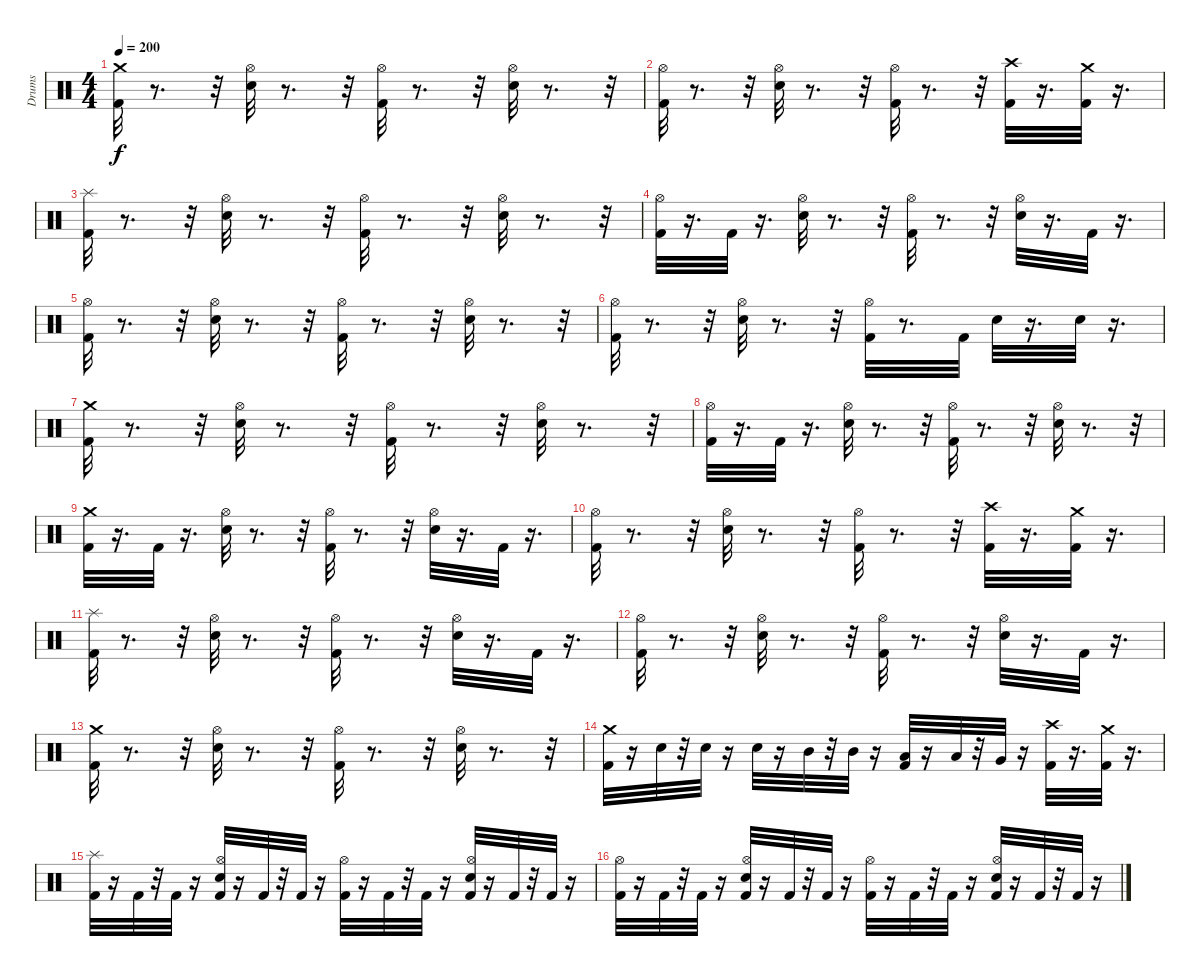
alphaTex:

\track ("Drums" "Drums") {instrument percussion}
\staff {score}
\articulation defaults
\ts (4 4)
\tempo 200
\clef neutral
\ks c
("Crash medium (hit)" "Kick (hit) 2").32{dy f} r.8{d} r.32 ("Hi-Hat (open)" "Electric Snare (hit)").32 r.8{d} r.32 ("Hi-Hat (open)" "Kick (hit) 2").32 r.8{d} r.32 ("Hi-Hat (open)" "Electric Snare (hit)").32 r.8{d} r.32 |
("Hi-Hat (open)" "Kick (hit) 2").32 r.8{d} r.32 ("Hi-Hat (open)" "Electric Snare (hit)").32 r.8{d} r.32 ("Hi-Hat (open)" "Kick (hit) 2").32 r.8{d} r.32 ("Crash high (hit)" "Kick (hit) 2").32 r.16{d} ("Kick (hit) 2" "Crash medium (hit)").32 r.16{d} |
("Splash (hit)" "Kick (hit) 2").32 r.8{d} r.32 ("Hi-Hat (open)" "Electric Snare (hit)").32 r.8{d} r.32 ("Hi-Hat (open)" "Kick (hit) 2").32 r.8{d} r.32 ("Hi-Hat (open)" "Electric Snare (hit)").32 r.8{d} r.32 |
("Hi-Hat (open)" "Kick (hit) 2").32 r.16{d} "Kick (hit) 2".32 r.16{d} ("Hi-Hat (open)" "Electric Snare (hit)").32 r.8{d} r.32 ("Hi-Hat (open)" "Kick (hit) 2").32 r.8{d} r.32 ("Hi-Hat (open)" "Electric Snare (hit)").32 r.16{d} "Kick (hit) 2".32 r.16{d} |
("Hi-Hat (open)" "Kick (hit) 2").32 r.8{d} r.32 ("Hi-Hat (open)" "Electric Snare (hit)").32 r.8{d} r.32 ("Hi-Hat (open)" "Kick (hit) 2").32 r.8{d} r.32 ("Hi-Hat (open)" "Electric Snare (hit)").32 r.8{d} r.32 |
("Hi-Hat (open)" "Kick (hit) 2").32 r.8{d} r.32 ("Hi-Hat (open)" "Electric Snare (hit)").32 r.8{d} r.32 ("Hi-Hat (open)" "Kick (hit) 2").32 r.8{d} "Kick (hit) 2".32 "Electric Snare (hit)".32 r.16{d} "Electric Snare (hit)".32 r.16{d} |
("Crash medium (hit)" "Kick (hit) 2").32 r.8{d} r.32 ("Hi-Hat (open)" "Electric Snare (hit)").32 r.8{d} r.32 ("Hi-Hat (open)" "Kick (hit) 2").32 r.8{d} r.32 ("Hi-Hat (open)" "Electric Snare (hit)").32 r.8{d} r.32 |
("Hi-Hat (open)" "Kick (hit) 2").32 r.16{d} "Kick (hit) 2".32 r.16{d} ("Hi-Hat (open)" "Electric Snare (hit)").32 r.8{d} r.32 ("Hi-Hat (open)" "Kick (hit) 2").32 r.8{d} r.32 ("Hi-Hat (open)" "Electric Snare (hit)").32 r.8{d} r.32 |
("Kick (hit) 2" "Crash medium (hit)").32 r.16{d} "Kick (hit) 2".32 r.16{d} ("Hi-Hat (open)" "Electric Snare (hit)").32 r.8{d} r.32 ("Hi-Hat (open)" "Kick (hit) 2").32 r.8{d} r.32 ("Hi-Hat (open)" "Electric Snare (hit)").32 r.16{d} "Kick (hit) 2".32 r.16{d} |
("Hi-Hat (open)" "Kick (hit) 2").32 r.8{d} r.32 ("Hi-Hat (open)" "Electric Snare (hit)").32 r.8{d} r.32 ("Hi-Hat (open)" "Kick (hit) 2").32 r.8{d} r.32 ("Kick (hit) 2" "Crash high (hit)").32 r.16{d} ("Kick (hit) 2" "Crash medium (hit)").32 r.16{d} |
("Splash (hit)" "Kick (hit) 2").32 r.8{d} r.32 ("Electric Snare (hit)" "Hi-Hat (open)").32 r.8{d} r.32 ("Kick (hit) 2" "Hi-Hat (open)").32 r.8{d} r.32 ("Electric Snare (hit)" "Hi-Hat (open)").32 r.16{d} "Kick (hit) 2".32 r.16{d} |
("Kick (hit) 2" "Hi-Hat (open)").32 r.8{d} r.32 ("Electric Snare (hit)" "Hi-Hat (open)").32 r.8{d} r.32 ("Kick (hit) 2" "Hi-Hat (open)").32 r.8{d} r.32 ("Electric Snare (hit)" "Hi-Hat (open)").32 r.16{d} "Kick (hit) 2".32 r.16{d} |
("Kick (hit) 2" "Crash medium (hit)").32 r.8{d} r.32 ("Electric Snare (hit)" "Hi-Hat (open)").32 r.8{d} r.32 ("Kick (hit) 2" "Hi-Hat (open)").32 r.8{d} r.32 ("Electric Snare (hit)" "Hi-Hat (open)").32 r.8{d} r.32 |
("Crash medium (hit)" "Kick (hit) 2").32 r.16 "Electric Snare (hit)".32 r.32 "Electric Snare (hit)".32 r.16 "Electric Snare (hit)".32 r.16 "Mid Tom (hit)".32 r.32 "Mid Tom (hit)".32 r.16 ("Low Tom (hit)" "Kick (hit) 2").32 r.16 "Low Tom (hit)".32 r.32 "Very Low Tom (hit)".32 r.16 ("Kick (hit) 2" "Crash high (hit)").32 r.16{d} ("Kick (hit) 2" "Crash medium (hit)").32 r.16{d} |
("Kick (hit) 2" "Splash (hit)").32 r.16 "Kick (hit) 2".32 r.32 "Kick (hit) 2".32 r.16 ("Hi-Hat (open)" "Electric Snare (hit)" "Kick (hit) 2").32 r.16 "Kick (hit) 2".32 r.32 "Kick (hit) 2".32 r.16 ("Hi-Hat (open)" "Kick (hit) 2").32 r.16 "Kick (hit) 2".32 r.32 "Kick (hit) 2".32 r.16 ("Hi-Hat (open)" "Electric Snare (hit)" "Kick (hit) 2").32 r.16 "Kick (hit) 2".32 r.32 "Kick (hit) 2".32 r.16 |
("Hi-Hat (open)" "Kick (hit) 2").32 r.16 "Kick (hit) 2".32 r.32 "Kick (hit) 2".32 r.16 ("Hi-Hat (open)" "Electric Snare (hit)" "Kick (hit) 2").32 r.16 "Kick (hit) 2".32 r.32 "Kick (hit) 2".32 r.16 ("Hi-Hat (open)" "Kick (hit) 2").32 r.16 "Kick (hit) 2".32 r.32 "Kick (hit) 2".32 r.16 ("Hi-Hat (open)" "Electric Snare (hit)" "Kick (hit) 2").32 r.16 "Kick (hit) 2".32 r.32 "Kick (hit) 2".32 r.16
